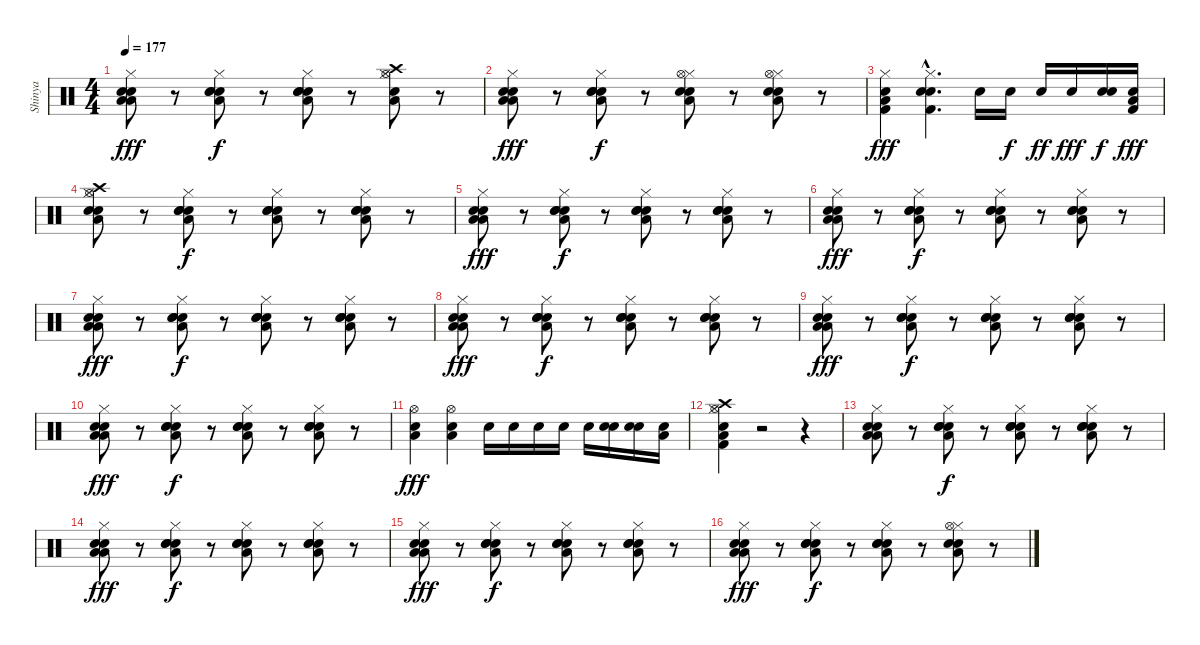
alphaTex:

\track ("Shinya " "Shinya ") {instrument percussion}
\staff {score}
\articulation defaults
\ts (4 4)
\tempo 177
\clef neutral
\ks c
("Hi-Hat (closed)" "Electric Snare (hit)" "Low Tom (hit)" "Electric Snare (hit)" "Low Tom (hit)").8{dy fff} r.8 ("Hi-Hat (closed)" "Electric Snare (hit)" "Low Tom (hit)" "Electric Snare (hit)" "Snare (hit) 2").8{dy f} r.8 ("Hi-Hat (closed)" "Electric Snare (hit)" "Electric Snare (hit)" "Snare (hit) 2" "Low Tom (hit)").8 r.8 ("Hi-Hat (closed)" "Hi-Hat (open)" "Electric Snare (hit)" "Low Tom (hit)" "Crash high (hit)").8 r.8 |
("Hi-Hat (closed)" "Electric Snare (hit)" "Low Tom (hit)" "Electric Snare (hit)" "Low Tom (hit)").8{dy fff} r.8 ("Hi-Hat (closed)" "Electric Snare (hit)" "Low Tom (hit)" "Electric Snare (hit)" "Snare (hit) 2").8{dy f} r.8 ("Hi-Hat (closed)" "Hi-Hat (open)" "Electric Snare (hit)" "Snare (hit) 2" "Low Tom (hit)").8 r.8 ("Hi-Hat (closed)" "Hi-Hat (open)" "Electric Snare (hit)" "Electric Snare (hit)" "Low Tom (hit)").8 r.8 |
("Hi-Hat (closed)" "Kick (hit) 2" "Electric Snare (hit)" "Low Tom (hit)").4{dy fff} ("Hi-Hat (closed)"{hac} "Kick (hit) 2"{hac} "Electric Snare (hit)"{hac} "Electric Snare (hit)"{hac}).4{d} "Electric Snare (hit)".16 "Electric Snare (hit)".16{dy f} "Electric Snare (hit)".16{dy ff} "Electric Snare (hit)".16{dy fff} ("Electric Snare (hit)" "Electric Snare (hit)").16{dy f} ("Low Tom (hit)" "Electric Snare (hit)" "Kick (hit) 2").16{dy fff} |
("Hi-Hat (closed)" "Electric Snare (hit)" "Low Tom (hit)" "Electric Snare (hit)" "Hi-Hat (open)" "Crash high (hit)").8 r.8 ("Hi-Hat (closed)" "Electric Snare (hit)" "Low Tom (hit)" "Electric Snare (hit)" "Snare (hit) 2").8{dy f} r.8 ("Hi-Hat (closed)" "Electric Snare (hit)" "Electric Snare (hit)" "Snare (hit) 2" "Low Tom (hit)").8 r.8 ("Hi-Hat (closed)" "Electric Snare (hit)" "Electric Snare (hit)" "Low Tom (hit)" "Electric Snare (hit)").8 r.8 |
("Hi-Hat (closed)" "Electric Snare (hit)" "Low Tom (hit)" "Electric Snare (hit)" "Low Tom (hit)").8{dy fff} r.8 ("Hi-Hat (closed)" "Electric Snare (hit)" "Low Tom (hit)" "Electric Snare (hit)" "Snare (hit) 2").8{dy f} r.8 ("Hi-Hat (closed)" "Electric Snare (hit)" "Electric Snare (hit)" "Snare (hit) 2" "Low Tom (hit)").8 r.8 ("Hi-Hat (closed)" "Electric Snare (hit)" "Electric Snare (hit)" "Electric Snare (hit)" "Low Tom (hit)").8 r.8 |
("Hi-Hat (closed)" "Electric Snare (hit)" "Low Tom (hit)" "Electric Snare (hit)" "Low Tom (hit)").8{dy fff} r.8 ("Hi-Hat (closed)" "Electric Snare (hit)" "Low Tom (hit)" "Electric Snare (hit)" "Snare (hit) 2").8{dy f} r.8 ("Hi-Hat (closed)" "Electric Snare (hit)" "Electric Snare (hit)" "Snare (hit) 2" "Low Tom (hit)").8 r.8 ("Hi-Hat (closed)" "Electric Snare (hit)" "Electric Snare (hit)" "Electric Snare (hit)" "Low Tom (hit)").8 r.8 |
("Hi-Hat (closed)" "Electric Snare (hit)" "Low Tom (hit)" "Electric Snare (hit)" "Low Tom (hit)").8{dy fff} r.8 ("Hi-Hat (closed)" "Electric Snare (hit)" "Low Tom (hit)" "Electric Snare (hit)" "Snare (hit) 2").8{dy f} r.8 ("Hi-Hat (closed)" "Electric Snare (hit)" "Electric Snare (hit)" "Snare (hit) 2" "Low Tom (hit)").8 r.8 ("Hi-Hat (closed)" "Electric Snare (hit)" "Electric Snare (hit)" "Low Tom (hit)" "Electric Snare (hit)").8 r.8 |
("Hi-Hat (closed)" "Electric Snare (hit)" "Low Tom (hit)" "Electric Snare (hit)" "Low Tom (hit)").8{dy fff} r.8 ("Hi-Hat (closed)" "Electric Snare (hit)" "Low Tom (hit)" "Electric Snare (hit)" "Snare (hit) 2").8{dy f} r.8 ("Hi-Hat (closed)" "Electric Snare (hit)" "Electric Snare (hit)" "Snare (hit) 2" "Low Tom (hit)").8 r.8 ("Hi-Hat (closed)" "Electric Snare (hit)" "Electric Snare (hit)" "Electric Snare (hit)" "Low Tom (hit)").8 r.8 |
("Hi-Hat (closed)" "Electric Snare (hit)" "Low Tom (hit)" "Electric Snare (hit)" "Low Tom (hit)").8{dy fff} r.8 ("Hi-Hat (closed)" "Electric Snare (hit)" "Low Tom (hit)" "Electric Snare (hit)" "Snare (hit) 2").8{dy f} r.8 ("Hi-Hat (closed)" "Electric Snare (hit)" "Electric Snare (hit)" "Snare (hit) 2" "Low Tom (hit)").8 r.8 ("Hi-Hat (closed)" "Electric Snare (hit)" "Electric Snare (hit)" "Electric Snare (hit)" "Low Tom (hit)").8 r.8 |
("Hi-Hat (closed)" "Electric Snare (hit)" "Low Tom (hit)" "Electric Snare (hit)" "Low Tom (hit)").8{dy fff} r.8 ("Hi-Hat (closed)" "Electric Snare (hit)" "Low Tom (hit)" "Electric Snare (hit)" "Snare (hit) 2").8{dy f} r.8 ("Hi-Hat (closed)" "Electric Snare (hit)" "Electric Snare (hit)" "Snare (hit) 2" "Low Tom (hit)").8 r.8 ("Hi-Hat (closed)" "Electric Snare (hit)" "Electric Snare (hit)" "Low Tom (hit)" "Electric Snare (hit)").8 r.8 |
("Electric Snare (hit)" "Low Tom (hit)" "Hi-Hat (open)").4{dy fff} ("Electric Snare (hit)" "Low Tom (hit)" "Hi-Hat (open)").4 "Electric Snare (hit)".16 "Electric Snare (hit)".16 "Electric Snare (hit)".16 "Electric Snare (hit)".16 "Electric Snare (hit)".16 ("Electric Snare (hit)" "Snare (hit) 2").16 ("Electric Snare (hit)" "Snare (hit) 2").16 ("Electric Snare (hit)" "Low Tom (hit)").16 |
("Hi-Hat (closed)" "Kick (hit) 2" "Electric Snare (hit)" "Hi-Hat (open)" "Crash high (hit)" "Low Tom (hit)").4 r.2 r.4 |
("Hi-Hat (closed)" "Electric Snare (hit)" "Low Tom (hit)" "Electric Snare (hit)" "Low Tom (hit)").8 r.8 ("Hi-Hat (closed)" "Electric Snare (hit)" "Low Tom (hit)" "Electric Snare (hit)" "Snare (hit) 2").8{dy f} r.8 ("Hi-Hat (closed)" "Electric Snare (hit)" "Electric Snare (hit)" "Snare (hit) 2" "Low Tom (hit)").8 r.8 ("Hi-Hat (closed)" "Electric Snare (hit)" "Electric Snare (hit)" "Low Tom (hit)" "Electric Snare (hit)").8 r.8 |
("Hi-Hat (closed)" "Electric Snare (hit)" "Low Tom (hit)" "Electric Snare (hit)" "Low Tom (hit)").8{dy fff} r.8 ("Hi-Hat (closed)" "Electric Snare (hit)" "Low Tom (hit)" "Electric Snare (hit)" "Snare (hit) 2").8{dy f} r.8 ("Hi-Hat (closed)" "Electric Snare (hit)" "Electric Snare (hit)" "Snare (hit) 2" "Low Tom (hit)").8 r.8 ("Hi-Hat (closed)" "Electric Snare (hit)" "Electric Snare (hit)" "Electric Snare (hit)" "Low Tom (hit)").8 r.8 |
("Hi-Hat (closed)" "Electric Snare (hit)" "Low Tom (hit)" "Electric Snare (hit)" "Low Tom (hit)").8{dy fff} r.8 ("Hi-Hat (closed)" "Electric Snare (hit)" "Low Tom (hit)" "Electric Snare (hit)" "Snare (hit) 2").8{dy f} r.8 ("Hi-Hat (closed)" "Electric Snare (hit)" "Electric Snare (hit)" "Snare (hit) 2" "Low Tom (hit)").8 r.8 ("Hi-Hat (closed)" "Electric Snare (hit)" "Electric Snare (hit)" "Low Tom (hit)" "Electric Snare (hit)").8 r.8 |
("Hi-Hat (closed)" "Electric Snare (hit)" "Low Tom (hit)" "Electric Snare (hit)" "Low Tom (hit)").8{dy fff} r.8 ("Hi-Hat (closed)" "Electric Snare (hit)" "Low Tom (hit)" "Electric Snare (hit)" "Snare (hit) 2").8{dy f} r.8 ("Hi-Hat (closed)" "Electric Snare (hit)" "Electric Snare (hit)" "Snare (hit) 2" "Low Tom (hit)").8 r.8 ("Hi-Hat (closed)" "Hi-Hat (open)" "Electric Snare (hit)" "Electric Snare (hit)" "Low Tom (hit)").8 r.8
